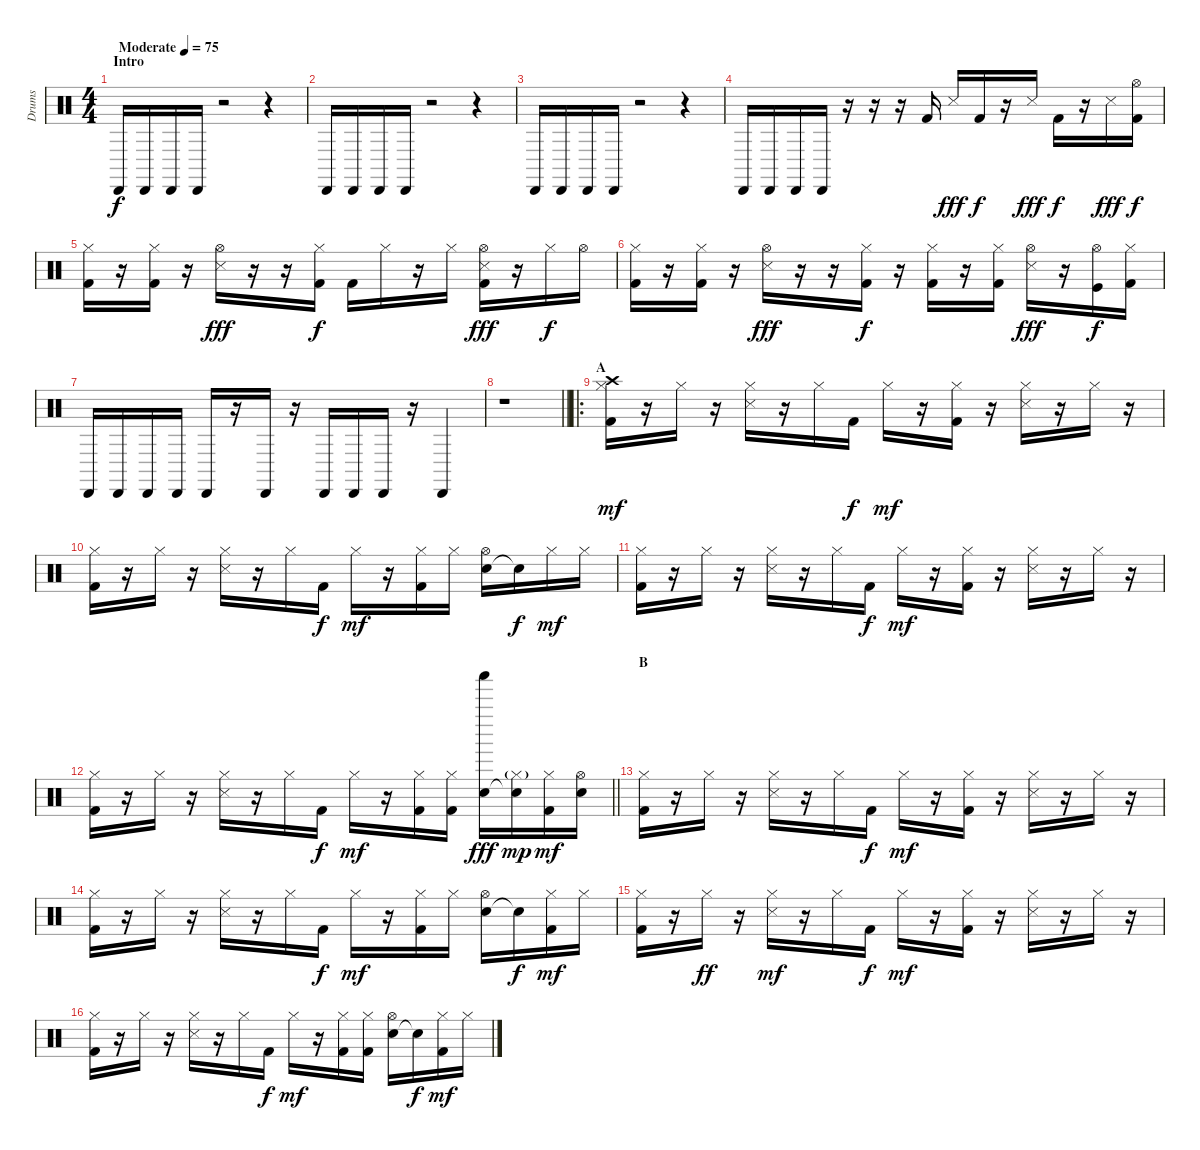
\track ("Drums" "Drums") {instrument percussion}
\staff {score}
\articulation defaults
\ts (4 4)
\section ("" "Intro")
\tempo (75 "Moderate")
\clef neutral
\ks c "Cabasa (hit)".16{dy f} "Cabasa (hit)".16 "Cabasa (hit)".16 "Cabasa (hit)".16
r.2 r.4 |
"Cabasa (hit)".16 "Cabasa (hit)".16 "Cabasa (hit)".16 "Cabasa (hit)".16 r.2 r.4 |
"Cabasa (hit)".16 "Cabasa (hit)".16 "Cabasa (hit)".16 "Cabasa (hit)".16 r.2 r.4 |
"Cabasa (hit)".16 "Cabasa (hit)".16 "Cabasa (hit)".16 "Cabasa (hit)".16 r.16 r.16 r.16 "Kick (hit) 2".16 "Snare (side stick) 3".16{dy fff} "Kick (hit) 2".16{dy f} r.16 "Snare (side stick) 3".16{dy fff} "Kick (hit) 2".16{dy f} r.16 "Snare (side stick) 3".16{dy fff} ("Hi-Hat (open)" "Kick (hit) 2").16{dy f} |
("Hi-Hat (closed)" "Kick (hit) 2").16 r.16 ("Hi-Hat (closed)" "Kick (hit) 2").16 r.16 ("Hi-Hat (open)" "Snare (side stick) 3").16{dy fff} r.16 r.16 ("Hi-Hat (closed)" "Kick (hit) 2").16{dy f} "Kick (hit) 2".16 "Hi-Hat (closed)".16 r.16 "Hi-Hat (closed)".16 ("Hi-Hat (open)" "Snare (side stick) 3" "Kick (hit) 2").16{dy fff} r.16 "Hi-Hat (closed)".16{dy f} "Hi-Hat (open)".16 |
("Hi-Hat (closed)" "Kick (hit) 2").16 r.16 ("Hi-Hat (closed)" "Kick (hit) 2").16 r.16 ("Hi-Hat (open)" "Snare (side stick) 3").16{dy fff} r.16 r.16 ("Hi-Hat (closed)" "Kick (hit) 2").16{dy f} r.16 ("Hi-Hat (closed)" "Kick (hit) 2").16 r.16 ("Hi-Hat (closed)" "Kick (hit) 2").16 ("Hi-Hat (open)" "Snare (side stick) 3").16{dy fff} r.16 ("Hi-Hat (open)" "Kick (hit)").16{dy f} ("Hi-Hat (closed)" "Kick (hit) 2").16 |
"Cabasa (hit)".16 "Cabasa (hit)".16 "Cabasa (hit)".16 "Cabasa (hit)".16 "Cabasa (hit)".16 r.16 "Cabasa (hit)".16 r.16 "Cabasa (hit)".16 "Cabasa (hit)".16 "Cabasa (hit)".16 r.16 "Cabasa (hit)".4 |
\barLineRight lightlight
r.1 |
\ro
\section ("" "A")
("Crash high (hit)" "Kick (hit) 2" "Hi-Hat (closed)").16{dy mf} r.16 "Hi-Hat (closed)".16 r.16 ("Snare (side stick) 3" "Hi-Hat (closed)").16 r.16 "Hi-Hat (closed)".16 "Kick (hit) 2".16{dy f} "Hi-Hat (closed)".16{dy mf} r.16 ("Kick (hit) 2" "Hi-Hat (closed)").16 r.16 ("Snare (side stick) 3" "Hi-Hat (closed)").16 r.16 "Hi-Hat (closed)".16 r.16 |
("Kick (hit) 2" "Hi-Hat (closed)").16 r.16 "Hi-Hat (closed)".16 r.16 ("Snare (side stick) 3" "Hi-Hat (closed)").16 r.16 "Hi-Hat (closed)".16 "Kick (hit) 2".16{dy f} "Hi-Hat (closed)".16{dy mf} r.16 ("Kick (hit) 2" "Hi-Hat (closed)").16 "Hi-Hat (closed)".16 ("Electric Snare (hit)" "Hi-Hat (open)").16 "Snare (hit)"{t}.16{dy f} "Hi-Hat (closed)".16{dy mf} "Hi-Hat (closed)".16 |
("Kick (hit) 2" "Hi-Hat (closed)").16 r.16 "Hi-Hat (closed)".16 r.16 ("Snare (side stick) 3" "Hi-Hat (closed)").16 r.16 "Hi-Hat (closed)".16 "Kick (hit) 2".16{dy f} "Hi-Hat (closed)".16{dy mf} r.16 ("Kick (hit) 2" "Hi-Hat (closed)").16 r.16 ("Snare (side stick) 3" "Hi-Hat (closed)").16 r.16 "Hi-Hat (closed)".16 r.16 |
\barLineRight lightlight
("Kick (hit) 2" "Hi-Hat (closed)").16 r.16 "Hi-Hat (closed)".16 r.16 ("Snare (side stick) 3" "Hi-Hat (closed)").16 r.16 "Hi-Hat (closed)".16 "Kick (hit) 2".16{dy f} "Hi-Hat (closed)".16{dy mf} r.16 ("Kick (hit) 2" "Hi-Hat (closed)").16 ("Kick (hit) 2" "Hi-Hat (closed)").16 ("Electric Snare (hit)" "Shaker (hit)").16{dy fff} ("Snare (hit)"{t} "Hi-Hat (closed)"{g}).16{dy mp} ("Kick (hit) 2" "Hi-Hat (closed)").16{dy mf} ("Electric Snare (hit)" "Hi-Hat (open)").16 |
\section ("" "B")
("Kick (hit) 2" "Hi-Hat (closed)").16 r.16 "Hi-Hat (closed)".16 r.16 ("Snare (side stick) 3" "Hi-Hat (closed)").16 r.16 "Hi-Hat (closed)".16 "Kick (hit) 2".16{dy f} "Hi-Hat (closed)".16{dy mf} r.16 ("Kick (hit) 2" "Hi-Hat (closed)").16 r.16 ("Snare (side stick) 3" "Hi-Hat (closed)").16 r.16 "Hi-Hat (closed)".16 r.16 |
("Kick (hit) 2" "Hi-Hat (closed)").16 r.16 "Hi-Hat (closed)".16 r.16 ("Snare (side stick) 3" "Hi-Hat (closed)").16 r.16 "Hi-Hat (closed)".16 "Kick (hit) 2".16{dy f} "Hi-Hat (closed)".16{dy mf} r.16 ("Kick (hit) 2" "Hi-Hat (closed)").16 "Hi-Hat (closed)".16 ("Electric Snare (hit)" "Hi-Hat (open)").16 "Snare (hit)"{t}.16{dy f} ("Kick (hit) 2" "Hi-Hat (closed)").16{dy mf} "Hi-Hat (closed)".16 |
("Kick (hit) 2" "Hi-Hat (closed)").16 r.16 "Hi-Hat (closed)".16{dy ff} r.16 ("Snare (side stick) 3" "Hi-Hat (closed)").16{dy mf} r.16 "Hi-Hat (closed)".16 "Kick (hit) 2".16{dy f} "Hi-Hat (closed)".16{dy mf} r.16 ("Kick (hit) 2" "Hi-Hat (closed)").16 r.16 ("Snare (side stick) 3" "Hi-Hat (closed)").16 r.16 "Hi-Hat (closed)".16 r.16 |
("Kick (hit) 2" "Hi-Hat (closed)").16 r.16 "Hi-Hat (closed)".16 r.16 ("Snare (side stick) 3" "Hi-Hat (closed)").16 r.16 "Hi-Hat (closed)".16 "Kick (hit) 2".16{dy f} "Hi-Hat (closed)".16{dy mf} r.16 ("Kick (hit) 2" "Hi-Hat (closed)").16 ("Kick (hit) 2" "Hi-Hat (closed)").16 ("Electric Snare (hit)" "Hi-Hat (open)").16 "Snare (hit)"{t}.16{dy f} ("Kick (hit) 2" "Hi-Hat (closed)").16{dy mf} "Hi-Hat (closed)".16
